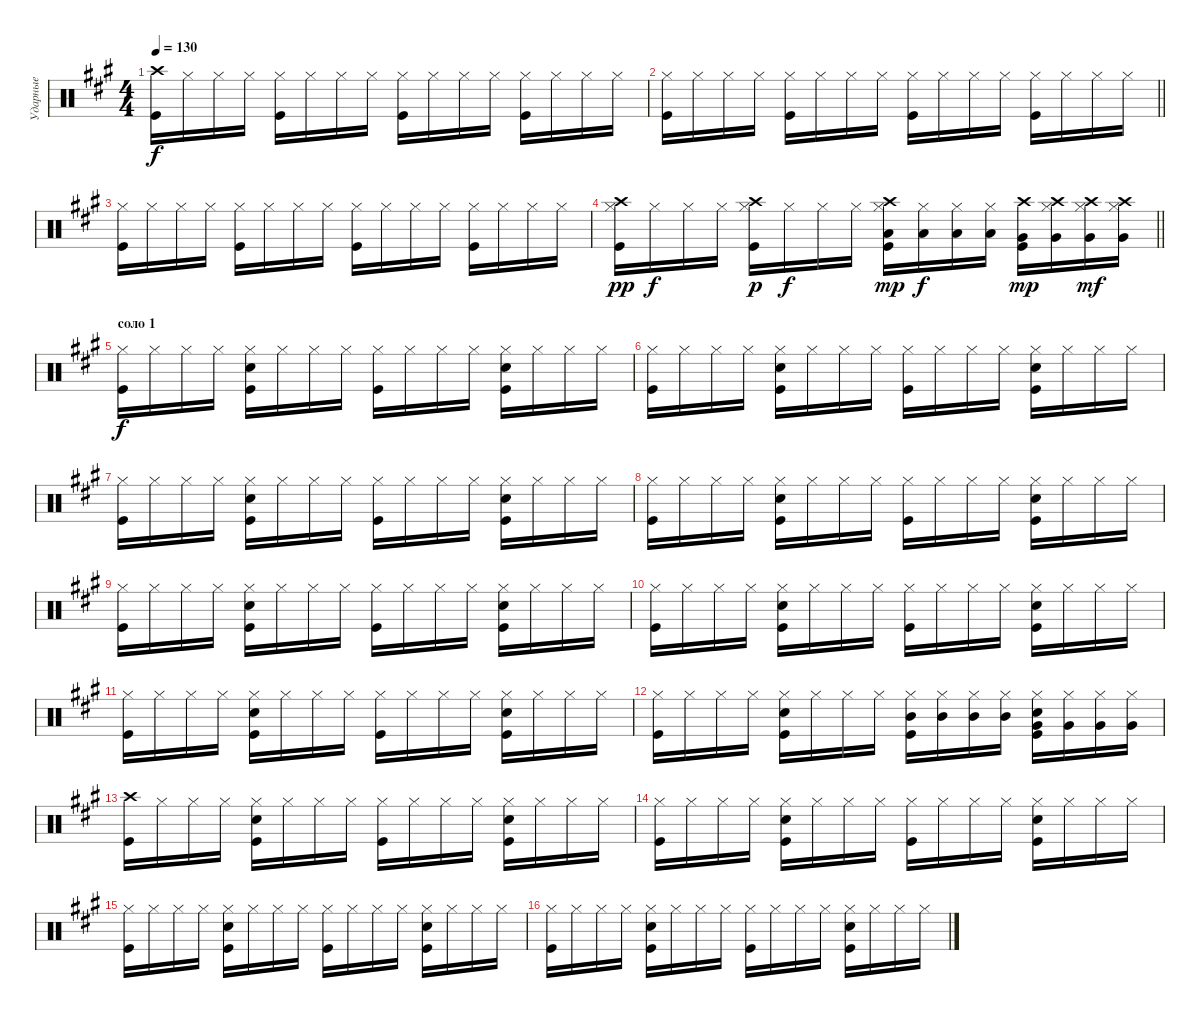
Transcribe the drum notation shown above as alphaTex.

\track ("Ударные" "Ударные") {instrument percussion}
\staff {score}
\articulation defaults
\ts (4 4)
\tempo 130
\clef neutral
\ks f#minor
("Kick (hit)" "Crash high (hit)").16{dy f} "Hi-Hat (closed)".16 "Hi-Hat (closed)".16 "Hi-Hat (closed)".16 ("Kick (hit)" "Hi-Hat (closed)").16 "Hi-Hat (closed)".16 "Hi-Hat (closed)".16 "Hi-Hat (closed)".16 ("Hi-Hat (closed)" "Kick (hit)").16 "Hi-Hat (closed)".16 "Hi-Hat (closed)".16 "Hi-Hat (closed)".16 ("Kick (hit)" "Hi-Hat (closed)").16 "Hi-Hat (closed)".16 "Hi-Hat (closed)".16 "Hi-Hat (closed)".16 |
\barLineRight lightlight
("Hi-Hat (closed)" "Kick (hit)").16 "Hi-Hat (closed)".16 "Hi-Hat (closed)".16 "Hi-Hat (closed)".16 ("Kick (hit)" "Hi-Hat (closed)").16 "Hi-Hat (closed)".16 "Hi-Hat (closed)".16 "Hi-Hat (closed)".16 ("Hi-Hat (closed)" "Kick (hit)").16 "Hi-Hat (closed)".16 "Hi-Hat (closed)".16 "Hi-Hat (closed)".16 ("Kick (hit)" "Hi-Hat (closed)").16 "Hi-Hat (closed)".16 "Hi-Hat (closed)".16 "Hi-Hat (closed)".16 |
("Hi-Hat (closed)" "Kick (hit)").16 "Hi-Hat (closed)".16 "Hi-Hat (closed)".16 "Hi-Hat (closed)".16 ("Kick (hit)" "Hi-Hat (closed)").16 "Hi-Hat (closed)".16 "Hi-Hat (closed)".16 "Hi-Hat (closed)".16 ("Hi-Hat (closed)" "Kick (hit)").16 "Hi-Hat (closed)".16 "Hi-Hat (closed)".16 "Hi-Hat (closed)".16 ("Kick (hit)" "Hi-Hat (closed)").16 "Hi-Hat (closed)".16 "Hi-Hat (closed)".16 "Hi-Hat (closed)".16 |
\barLineRight lightlight
("Kick (hit)" "Crash high (hit)" "Hi-Hat (closed)").16{dy pp} "Hi-Hat (closed)".16{dy f} "Hi-Hat (closed)".16 "Hi-Hat (closed)".16 ("Kick (hit)" "Crash high (hit)" "Hi-Hat (closed)").16{dy p} "Hi-Hat (closed)".16{dy f} "Hi-Hat (closed)".16 "Hi-Hat (closed)".16 ("Kick (hit)" "Crash high (hit)" "Hi-Hat (closed)" "Low Floor Tom (hit)").16{dy mp} ("Hi-Hat (closed)" "Low Floor Tom (hit)").16{dy f} ("Hi-Hat (closed)" "Low Floor Tom (hit)").16 ("Hi-Hat (closed)" "Low Floor Tom (hit)").16 ("Kick (hit)" "Crash high (hit)" "Very Low Tom (hit)").16{dy mp} ("Hi-Hat (closed)" "Crash high (hit)" "Very Low Tom (hit)").16 ("Hi-Hat (closed)" "Crash high (hit)" "Very Low Tom (hit)").16{dy mf} ("Hi-Hat (closed)" "Crash high (hit)" "Very Low Tom (hit)").16 |
\section ("" "соло 1")
("Kick (hit)" "Hi-Hat (closed)").16{dy f} "Hi-Hat (closed)".16 "Hi-Hat (closed)".16 "Hi-Hat (closed)".16 ("Hi-Hat (closed)" "Snare (hit) 2" "Kick (hit)").16 "Hi-Hat (closed)".16 "Hi-Hat (closed)".16 "Hi-Hat (closed)".16 ("Hi-Hat (closed)" "Kick (hit)").16 "Hi-Hat (closed)".16 "Hi-Hat (closed)".16 "Hi-Hat (closed)".16 ("Hi-Hat (closed)" "Snare (hit) 2" "Kick (hit)").16 "Hi-Hat (closed)".16 "Hi-Hat (closed)".16 "Hi-Hat (closed)".16 |
("Hi-Hat (closed)" "Kick (hit)").16 "Hi-Hat (closed)".16 "Hi-Hat (closed)".16 "Hi-Hat (closed)".16 ("Hi-Hat (closed)" "Snare (hit) 2" "Kick (hit)").16 "Hi-Hat (closed)".16 "Hi-Hat (closed)".16 "Hi-Hat (closed)".16 ("Hi-Hat (closed)" "Kick (hit)").16 "Hi-Hat (closed)".16 "Hi-Hat (closed)".16 "Hi-Hat (closed)".16 ("Hi-Hat (closed)" "Snare (hit) 2" "Kick (hit)").16 "Hi-Hat (closed)".16 "Hi-Hat (closed)".16 "Hi-Hat (closed)".16 |
("Hi-Hat (closed)" "Kick (hit)").16 "Hi-Hat (closed)".16 "Hi-Hat (closed)".16 "Hi-Hat (closed)".16 ("Hi-Hat (closed)" "Snare (hit) 2" "Kick (hit)").16 "Hi-Hat (closed)".16 "Hi-Hat (closed)".16 "Hi-Hat (closed)".16 ("Hi-Hat (closed)" "Kick (hit)").16 "Hi-Hat (closed)".16 "Hi-Hat (closed)".16 "Hi-Hat (closed)".16 ("Hi-Hat (closed)" "Snare (hit) 2" "Kick (hit)").16 "Hi-Hat (closed)".16 "Hi-Hat (closed)".16 "Hi-Hat (closed)".16 |
("Hi-Hat (closed)" "Kick (hit)").16 "Hi-Hat (closed)".16 "Hi-Hat (closed)".16 "Hi-Hat (closed)".16 ("Hi-Hat (closed)" "Snare (hit) 2" "Kick (hit)").16 "Hi-Hat (closed)".16 "Hi-Hat (closed)".16 "Hi-Hat (closed)".16 ("Hi-Hat (closed)" "Kick (hit)").16 "Hi-Hat (closed)".16 "Hi-Hat (closed)".16 "Hi-Hat (closed)".16 ("Hi-Hat (closed)" "Snare (hit) 2" "Kick (hit)").16 "Hi-Hat (closed)".16 "Hi-Hat (closed)".16 "Hi-Hat (closed)".16 |
("Hi-Hat (closed)" "Kick (hit)").16 "Hi-Hat (closed)".16 "Hi-Hat (closed)".16 "Hi-Hat (closed)".16 ("Hi-Hat (closed)" "Snare (hit) 2" "Kick (hit)").16 "Hi-Hat (closed)".16 "Hi-Hat (closed)".16 "Hi-Hat (closed)".16 ("Hi-Hat (closed)" "Kick (hit)").16 "Hi-Hat (closed)".16 "Hi-Hat (closed)".16 "Hi-Hat (closed)".16 ("Hi-Hat (closed)" "Snare (hit) 2" "Kick (hit)").16 "Hi-Hat (closed)".16 "Hi-Hat (closed)".16 "Hi-Hat (closed)".16 |
("Hi-Hat (closed)" "Kick (hit)").16 "Hi-Hat (closed)".16 "Hi-Hat (closed)".16 "Hi-Hat (closed)".16 ("Hi-Hat (closed)" "Snare (hit) 2" "Kick (hit)").16 "Hi-Hat (closed)".16 "Hi-Hat (closed)".16 "Hi-Hat (closed)".16 ("Hi-Hat (closed)" "Kick (hit)").16 "Hi-Hat (closed)".16 "Hi-Hat (closed)".16 "Hi-Hat (closed)".16 ("Hi-Hat (closed)" "Snare (hit) 2" "Kick (hit)").16 "Hi-Hat (closed)".16 "Hi-Hat (closed)".16 "Hi-Hat (closed)".16 |
("Hi-Hat (closed)" "Kick (hit)").16 "Hi-Hat (closed)".16 "Hi-Hat (closed)".16 "Hi-Hat (closed)".16 ("Hi-Hat (closed)" "Snare (hit) 2" "Kick (hit)").16 "Hi-Hat (closed)".16 "Hi-Hat (closed)".16 "Hi-Hat (closed)".16 ("Hi-Hat (closed)" "Kick (hit)").16 "Hi-Hat (closed)".16 "Hi-Hat (closed)".16 "Hi-Hat (closed)".16 ("Hi-Hat (closed)" "Snare (hit) 2" "Kick (hit)").16 "Hi-Hat (closed)".16 "Hi-Hat (closed)".16 "Hi-Hat (closed)".16 |
("Hi-Hat (closed)" "Kick (hit)").16 "Hi-Hat (closed)".16 "Hi-Hat (closed)".16 "Hi-Hat (closed)".16 ("Hi-Hat (closed)" "Snare (hit) 2" "Kick (hit)").16 "Hi-Hat (closed)".16 "Hi-Hat (closed)".16 "Hi-Hat (closed)".16 ("Mid Tom (hit)" "Hi-Hat (closed)" "Kick (hit)").16 ("Mid Tom (hit)" "Hi-Hat (closed)").16 ("Mid Tom (hit)" "Hi-Hat (closed)").16 ("Mid Tom (hit)" "Hi-Hat (closed)").16 ("Very Low Tom (hit)" "Hi-Hat (closed)" "Snare (hit) 2" "Kick (hit)").16 ("Very Low Tom (hit)" "Hi-Hat (closed)").16 ("Very Low Tom (hit)" "Hi-Hat (closed)").16 ("Very Low Tom (hit)" "Hi-Hat (closed)").16 |
("Kick (hit)" "Crash high (hit)").16 "Hi-Hat (closed)".16 "Hi-Hat (closed)".16 "Hi-Hat (closed)".16 ("Hi-Hat (closed)" "Snare (hit) 2" "Kick (hit)").16 "Hi-Hat (closed)".16 "Hi-Hat (closed)".16 "Hi-Hat (closed)".16 ("Hi-Hat (closed)" "Kick (hit)").16 "Hi-Hat (closed)".16 "Hi-Hat (closed)".16 "Hi-Hat (closed)".16 ("Hi-Hat (closed)" "Snare (hit) 2" "Kick (hit)").16 "Hi-Hat (closed)".16 "Hi-Hat (closed)".16 "Hi-Hat (closed)".16 |
("Hi-Hat (closed)" "Kick (hit)").16 "Hi-Hat (closed)".16 "Hi-Hat (closed)".16 "Hi-Hat (closed)".16 ("Hi-Hat (closed)" "Snare (hit) 2" "Kick (hit)").16 "Hi-Hat (closed)".16 "Hi-Hat (closed)".16 "Hi-Hat (closed)".16 ("Hi-Hat (closed)" "Kick (hit)").16 "Hi-Hat (closed)".16 "Hi-Hat (closed)".16 "Hi-Hat (closed)".16 ("Hi-Hat (closed)" "Snare (hit) 2" "Kick (hit)").16 "Hi-Hat (closed)".16 "Hi-Hat (closed)".16 "Hi-Hat (closed)".16 |
("Hi-Hat (closed)" "Kick (hit)").16 "Hi-Hat (closed)".16 "Hi-Hat (closed)".16 "Hi-Hat (closed)".16 ("Hi-Hat (closed)" "Snare (hit) 2" "Kick (hit)").16 "Hi-Hat (closed)".16 "Hi-Hat (closed)".16 "Hi-Hat (closed)".16 ("Hi-Hat (closed)" "Kick (hit)").16 "Hi-Hat (closed)".16 "Hi-Hat (closed)".16 "Hi-Hat (closed)".16 ("Hi-Hat (closed)" "Snare (hit) 2" "Kick (hit)").16 "Hi-Hat (closed)".16 "Hi-Hat (closed)".16 "Hi-Hat (closed)".16 |
("Hi-Hat (closed)" "Kick (hit)").16 "Hi-Hat (closed)".16 "Hi-Hat (closed)".16 "Hi-Hat (closed)".16 ("Hi-Hat (closed)" "Snare (hit) 2" "Kick (hit)").16 "Hi-Hat (closed)".16 "Hi-Hat (closed)".16 "Hi-Hat (closed)".16 ("Hi-Hat (closed)" "Kick (hit)").16 "Hi-Hat (closed)".16 "Hi-Hat (closed)".16 "Hi-Hat (closed)".16 ("Hi-Hat (closed)" "Snare (hit) 2" "Kick (hit)").16 "Hi-Hat (closed)".16 "Hi-Hat (closed)".16 "Hi-Hat (closed)".16
